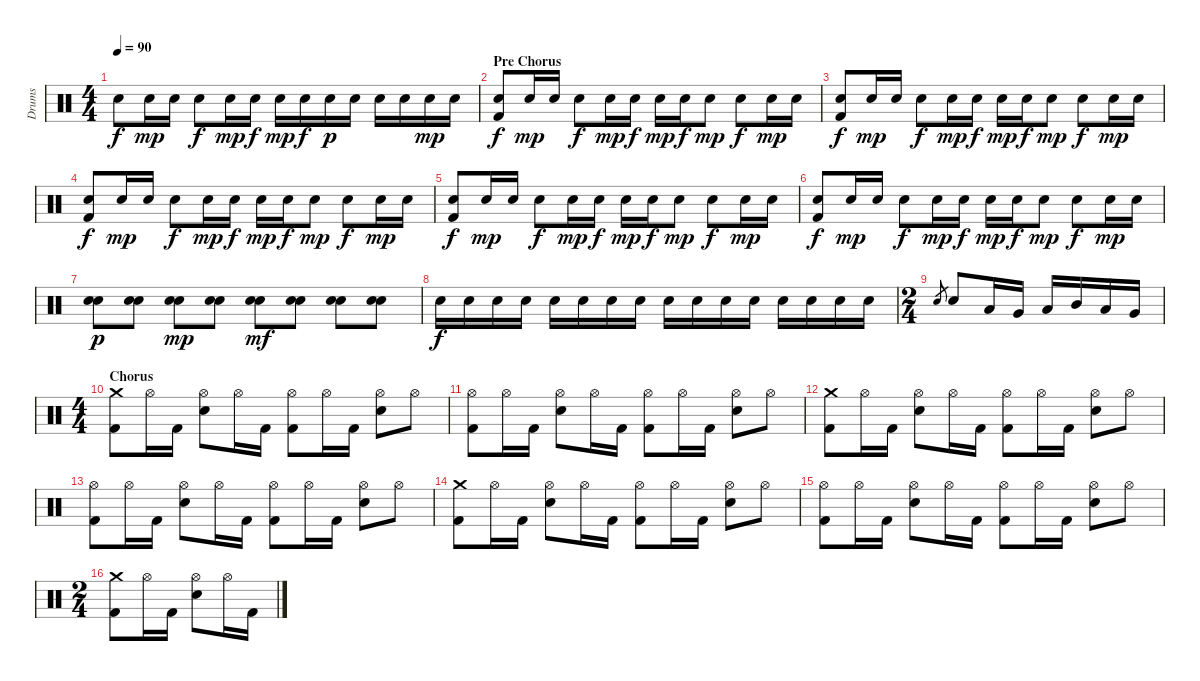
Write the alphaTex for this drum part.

\track ("Drums" "Drums") {instrument percussion}
\staff {score}
\articulation defaults
\ts (4 4)
\tempo 90
\clef neutral
\ks c "Electric Snare (hit)".8{dy f} "Electric Snare (hit)".16{dy mp} "Electric Snare (hit)".16 "Electric Snare (hit)".8{dy f} "Electric Snare (hit)".16{dy mp} "Electric Snare (hit)".16{dy f} "Electric Snare (hit)".16{dy mp} "Electric Snare (hit)".16{dy f} "Electric Snare (hit)".16{dy p} "Electric Snare (hit)".16 "Electric Snare (hit)".16 "Electric Snare (hit)".16 "Electric Snare (hit)".16{dy mp} "Electric Snare (hit)".16
|
\section ("" "Pre Chorus")
("Electric Snare (hit)" "Kick (hit) 2").8{dy f} "Electric Snare (hit)".16{dy mp} "Electric Snare (hit)".16 "Electric Snare (hit)".8{dy f} "Electric Snare (hit)".16{dy mp} "Electric Snare (hit)".16{dy f} "Electric Snare (hit)".16{dy mp} "Electric Snare (hit)".16{dy f} "Electric Snare (hit)".8{dy mp} "Electric Snare (hit)".8{dy f} "Electric Snare (hit)".16{dy mp} "Electric Snare (hit)".16 |
("Electric Snare (hit)" "Kick (hit) 2").8{dy f} "Electric Snare (hit)".16{dy mp} "Electric Snare (hit)".16 "Electric Snare (hit)".8{dy f} "Electric Snare (hit)".16{dy mp} "Electric Snare (hit)".16{dy f} "Electric Snare (hit)".16{dy mp} "Electric Snare (hit)".16{dy f} "Electric Snare (hit)".8{dy mp} "Electric Snare (hit)".8{dy f} "Electric Snare (hit)".16{dy mp} "Electric Snare (hit)".16 |
("Electric Snare (hit)" "Kick (hit) 2").8{dy f} "Electric Snare (hit)".16{dy mp} "Electric Snare (hit)".16 "Electric Snare (hit)".8{dy f} "Electric Snare (hit)".16{dy mp} "Electric Snare (hit)".16{dy f} "Electric Snare (hit)".16{dy mp} "Electric Snare (hit)".16{dy f} "Electric Snare (hit)".8{dy mp} "Electric Snare (hit)".8{dy f} "Electric Snare (hit)".16{dy mp} "Electric Snare (hit)".16 |
("Electric Snare (hit)" "Kick (hit) 2").8{dy f} "Electric Snare (hit)".16{dy mp} "Electric Snare (hit)".16 "Electric Snare (hit)".8{dy f} "Electric Snare (hit)".16{dy mp} "Electric Snare (hit)".16{dy f} "Electric Snare (hit)".16{dy mp} "Electric Snare (hit)".16{dy f} "Electric Snare (hit)".8{dy mp} "Electric Snare (hit)".8{dy f} "Electric Snare (hit)".16{dy mp} "Electric Snare (hit)".16 |
("Electric Snare (hit)" "Kick (hit) 2").8{dy f} "Electric Snare (hit)".16{dy mp} "Electric Snare (hit)".16 "Electric Snare (hit)".8{dy f} "Electric Snare (hit)".16{dy mp} "Electric Snare (hit)".16{dy f} "Electric Snare (hit)".16{dy mp} "Electric Snare (hit)".16{dy f} "Electric Snare (hit)".8{dy mp} "Electric Snare (hit)".8{dy f} "Electric Snare (hit)".16{dy mp} "Electric Snare (hit)".16 |
("Electric Snare (hit)" "Electric Snare (hit)").8{dy p} ("Electric Snare (hit)" "Electric Snare (hit)").8 ("Electric Snare (hit)" "Electric Snare (hit)").8{dy mp} ("Electric Snare (hit)" "Electric Snare (hit)").8 ("Electric Snare (hit)" "Electric Snare (hit)").8{dy mf} ("Electric Snare (hit)" "Electric Snare (hit)").8 ("Electric Snare (hit)" "Electric Snare (hit)").8 ("Electric Snare (hit)" "Electric Snare (hit)").8 |
"Electric Snare (hit)".16{dy f} "Electric Snare (hit)".16 "Electric Snare (hit)".16 "Electric Snare (hit)".16 "Electric Snare (hit)".16 "Electric Snare (hit)".16 "Electric Snare (hit)".16 "Electric Snare (hit)".16 "Electric Snare (hit)".16 "Electric Snare (hit)".16 "Electric Snare (hit)".16 "Electric Snare (hit)".16 "Electric Snare (hit)".16 "Electric Snare (hit)".16 "Electric Snare (hit)".16 "Electric Snare (hit)".16 |
\ts (2 4)
"Electric Snare (hit)".8{gr} "Electric Snare (hit)".8 "Low Tom (hit)".16 "Very Low Tom (hit)".16 "Low Tom (hit)".16 "Mid Tom (hit)".16 "Low Tom (hit)".16 "Very Low Tom (hit)".16 |
\ts (4 4)
\section ("" "Chorus")
("Crash medium (hit)" "Kick (hit) 2").8 "Hi-Hat (open)".16 "Kick (hit) 2".16 ("Hi-Hat (open)" "Electric Snare (hit)").8 "Hi-Hat (open)".16 "Kick (hit) 2".16 ("Hi-Hat (open)" "Kick (hit) 2").8 "Hi-Hat (open)".16 "Kick (hit) 2".16 ("Hi-Hat (open)" "Electric Snare (hit)").8 "Hi-Hat (open)".8 |
("Hi-Hat (open)" "Kick (hit) 2").8 "Hi-Hat (open)".16 "Kick (hit) 2".16 ("Hi-Hat (open)" "Electric Snare (hit)").8 "Hi-Hat (open)".16 "Kick (hit) 2".16 ("Hi-Hat (open)" "Kick (hit) 2").8 "Hi-Hat (open)".16 "Kick (hit) 2".16 ("Hi-Hat (open)" "Electric Snare (hit)").8 "Hi-Hat (open)".8 |
("Crash medium (hit)" "Kick (hit) 2").8 "Hi-Hat (open)".16 "Kick (hit) 2".16 ("Hi-Hat (open)" "Electric Snare (hit)").8 "Hi-Hat (open)".16 "Kick (hit) 2".16 ("Hi-Hat (open)" "Kick (hit) 2").8 "Hi-Hat (open)".16 "Kick (hit) 2".16 ("Hi-Hat (open)" "Electric Snare (hit)").8 "Hi-Hat (open)".8 |
("Hi-Hat (open)" "Kick (hit) 2").8 "Hi-Hat (open)".16 "Kick (hit) 2".16 ("Hi-Hat (open)" "Electric Snare (hit)").8 "Hi-Hat (open)".16 "Kick (hit) 2".16 ("Hi-Hat (open)" "Kick (hit) 2").8 "Hi-Hat (open)".16 "Kick (hit) 2".16 ("Hi-Hat (open)" "Electric Snare (hit)").8 "Hi-Hat (open)".8 |
("Crash medium (hit)" "Kick (hit) 2").8 "Hi-Hat (open)".16 "Kick (hit) 2".16 ("Hi-Hat (open)" "Electric Snare (hit)").8 "Hi-Hat (open)".16 "Kick (hit) 2".16 ("Hi-Hat (open)" "Kick (hit) 2").8 "Hi-Hat (open)".16 "Kick (hit) 2".16 ("Hi-Hat (open)" "Electric Snare (hit)").8 "Hi-Hat (open)".8 |
("Hi-Hat (open)" "Kick (hit) 2").8 "Hi-Hat (open)".16 "Kick (hit) 2".16 ("Hi-Hat (open)" "Electric Snare (hit)").8 "Hi-Hat (open)".16 "Kick (hit) 2".16 ("Hi-Hat (open)" "Kick (hit) 2").8 "Hi-Hat (open)".16 "Kick (hit) 2".16 ("Hi-Hat (open)" "Electric Snare (hit)").8 "Hi-Hat (open)".8 |
\ts (2 4)
("Crash medium (hit)" "Kick (hit) 2").8 "Hi-Hat (open)".16 "Kick (hit) 2".16 ("Hi-Hat (open)" "Electric Snare (hit)").8 "Hi-Hat (open)".16 "Kick (hit) 2".16
